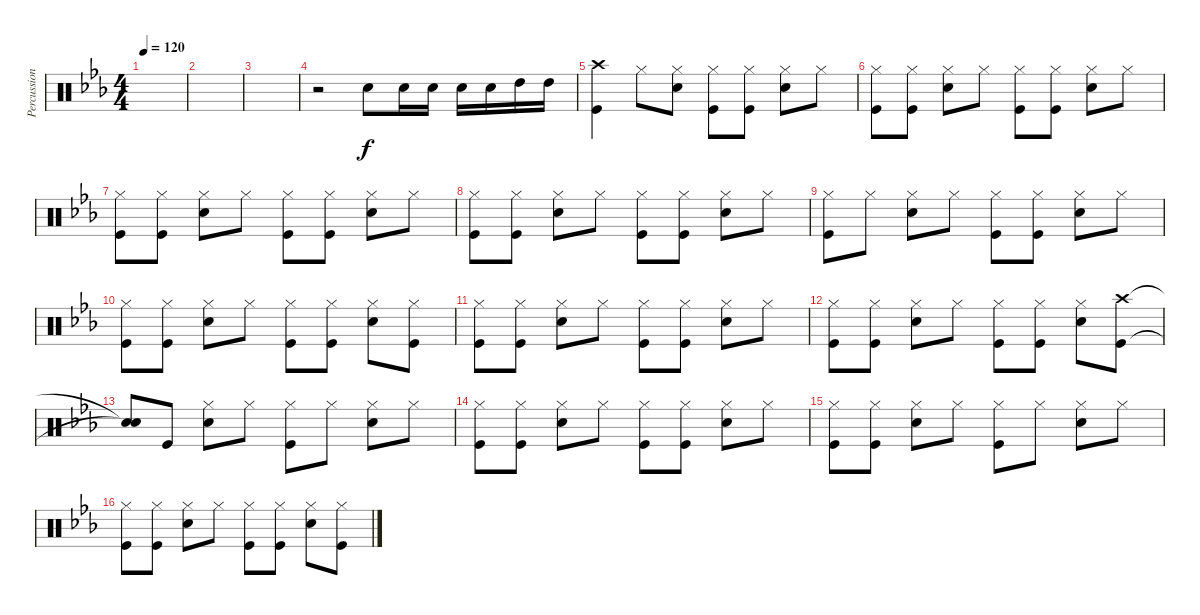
\track ("Percussion" "Percussion") {instrument percussion}
\staff {score}
\articulation defaults
\ts (4 4)
\tempo 120
\clef neutral
\ks eb
|
|
|
r.2 "Snare (hit) 2".8 "Snare (hit) 2".16 "Snare (hit) 2".16 "Snare (hit) 2".16 "Snare (hit) 2".16 "High Tom (hit)".16 "High Tom (hit)".16 |
("Crash high (hit)" "Kick (hit)").4 "Hi-Hat (closed)".8 ("Hi-Hat (closed)" "Snare (hit) 2").8 ("Hi-Hat (closed)" "Kick (hit)").8 ("Hi-Hat (closed)" "Kick (hit)").8 ("Hi-Hat (closed)" "Snare (hit) 2").8 "Hi-Hat (closed)".8 |
("Hi-Hat (closed)" "Kick (hit)").8 ("Hi-Hat (closed)" "Kick (hit)").8 ("Hi-Hat (closed)" "Snare (hit) 2").8 "Hi-Hat (closed)".8 ("Hi-Hat (closed)" "Kick (hit)").8 ("Hi-Hat (closed)" "Kick (hit)").8 ("Hi-Hat (closed)" "Snare (hit) 2").8 "Hi-Hat (closed)".8 |
("Hi-Hat (closed)" "Kick (hit)").8 ("Hi-Hat (closed)" "Kick (hit)").8 ("Hi-Hat (closed)" "Snare (hit) 2").8 "Hi-Hat (closed)".8 ("Hi-Hat (closed)" "Kick (hit)").8 ("Hi-Hat (closed)" "Kick (hit)").8 ("Hi-Hat (closed)" "Snare (hit) 2").8 "Hi-Hat (closed)".8 |
("Hi-Hat (closed)" "Kick (hit)").8 ("Hi-Hat (closed)" "Kick (hit)").8 ("Hi-Hat (closed)" "Snare (hit) 2").8 "Hi-Hat (closed)".8 ("Hi-Hat (closed)" "Kick (hit)").8 ("Hi-Hat (closed)" "Kick (hit)").8 ("Hi-Hat (closed)" "Snare (hit) 2").8 "Hi-Hat (closed)".8 |
("Hi-Hat (closed)" "Kick (hit)").8 "Hi-Hat (closed)".8 ("Hi-Hat (closed)" "Snare (hit) 2").8 "Hi-Hat (closed)".8 ("Hi-Hat (closed)" "Kick (hit)").8 ("Hi-Hat (closed)" "Kick (hit)").8 ("Hi-Hat (closed)" "Snare (hit) 2").8 "Hi-Hat (closed)".8 |
("Hi-Hat (closed)" "Kick (hit)").8 ("Hi-Hat (closed)" "Kick (hit)").8 ("Hi-Hat (closed)" "Snare (hit) 2").8 "Hi-Hat (closed)".8 ("Hi-Hat (closed)" "Kick (hit)").8 ("Hi-Hat (closed)" "Kick (hit)").8 ("Hi-Hat (closed)" "Snare (hit) 2").8 ("Hi-Hat (closed)" "Kick (hit)").8 |
("Hi-Hat (closed)" "Kick (hit)").8 ("Hi-Hat (closed)" "Kick (hit)").8 ("Hi-Hat (closed)" "Snare (hit) 2").8 "Hi-Hat (closed)".8 ("Hi-Hat (closed)" "Kick (hit)").8 ("Hi-Hat (closed)" "Kick (hit)").8 ("Hi-Hat (closed)" "Snare (hit) 2").8 "Hi-Hat (closed)".8 |
("Hi-Hat (closed)" "Kick (hit)").8 ("Hi-Hat (closed)" "Kick (hit)").8 ("Hi-Hat (closed)" "Snare (hit) 2").8 "Hi-Hat (closed)".8 ("Hi-Hat (closed)" "Kick (hit)").8 ("Hi-Hat (closed)" "Kick (hit)").8 ("Hi-Hat (closed)" "Snare (hit) 2").8 ("Crash high (hit)" "Kick (hit)").8 |
("Snare (hit)"{t} "Snare (hit)"{t}).8 "Kick (hit)".8 ("Hi-Hat (closed)" "Snare (hit) 2").8 "Hi-Hat (closed)".8 ("Hi-Hat (closed)" "Kick (hit)").8 "Hi-Hat (closed)".8 ("Hi-Hat (closed)" "Snare (hit) 2").8 "Hi-Hat (closed)".8 |
("Hi-Hat (closed)" "Kick (hit)").8 ("Hi-Hat (closed)" "Kick (hit)").8 ("Hi-Hat (closed)" "Snare (hit) 2").8 "Hi-Hat (closed)".8 ("Hi-Hat (closed)" "Kick (hit)").8 ("Hi-Hat (closed)" "Kick (hit)").8 ("Hi-Hat (closed)" "Snare (hit) 2").8 "Hi-Hat (closed)".8 |
("Hi-Hat (closed)" "Kick (hit)").8 ("Hi-Hat (closed)" "Kick (hit)").8 ("Hi-Hat (closed)" "Snare (hit) 2").8 "Hi-Hat (closed)".8 ("Hi-Hat (closed)" "Kick (hit)").8 "Hi-Hat (closed)".8 ("Hi-Hat (closed)" "Snare (hit) 2").8 "Hi-Hat (closed)".8 |
("Hi-Hat (closed)" "Kick (hit)").8 ("Hi-Hat (closed)" "Kick (hit)").8 ("Hi-Hat (closed)" "Snare (hit) 2").8 "Hi-Hat (closed)".8 ("Hi-Hat (closed)" "Kick (hit)").8 ("Hi-Hat (closed)" "Kick (hit)").8 ("Hi-Hat (closed)" "Snare (hit) 2").8 ("Hi-Hat (closed)" "Kick (hit)").8
